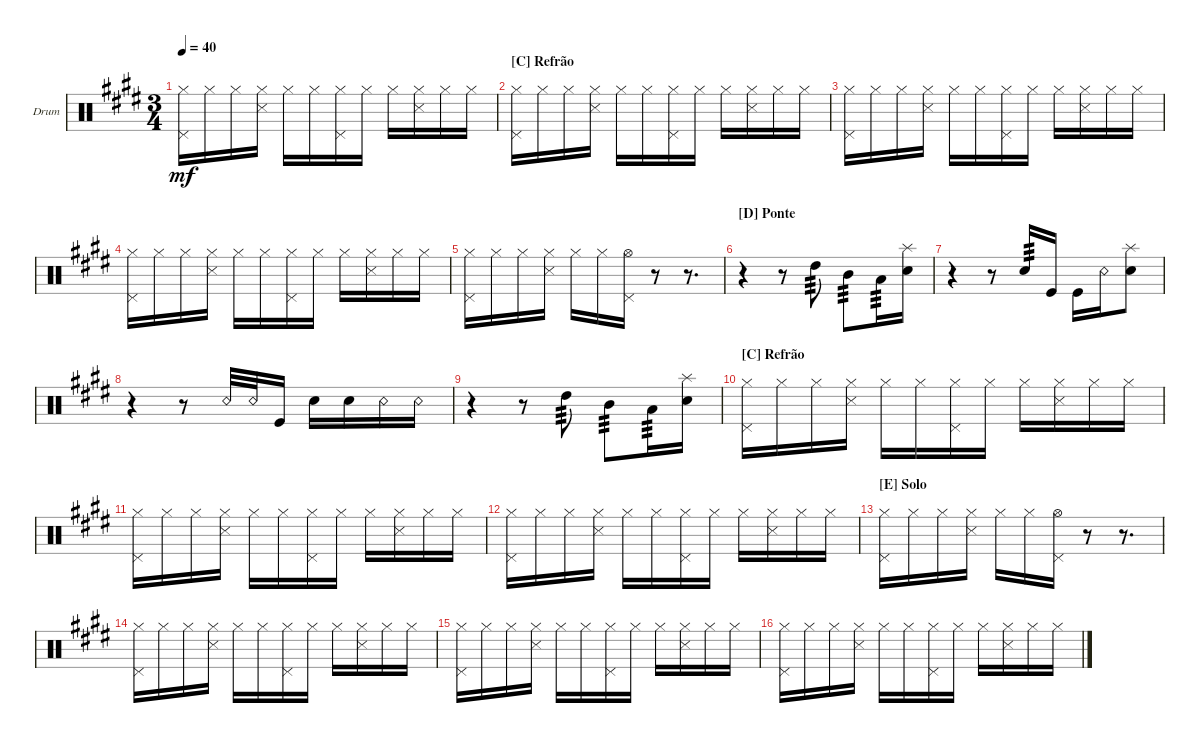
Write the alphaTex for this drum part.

\defaultSystemsLayout 4
\bracketExtendMode groupsimilarinstruments
\firstSystemTrackNameOrientation horizontal
\otherSystemsTrackNameOrientation horizontal
\track ("Drum" "Drum") {multiBarRest instrument percussion}
\staff {score}
\articulation defaults
\ts (3 4)
\tempo 40
\clef neutral
\ks c#minor
("Hi-Hat (closed)" "Pedal Hi-Hat (hit)").16{dy mf} "Hi-Hat (closed)".16 "Hi-Hat (closed)".16 ("Hi-Hat (closed)" "Snare (side stick) 3").16 "Hi-Hat (closed)".16 "Hi-Hat (closed)".16 ("Hi-Hat (closed)" "Pedal Hi-Hat (hit)").16 "Hi-Hat (closed)".16 "Hi-Hat (closed)".16 ("Hi-Hat (closed)" "Snare (side stick) 3").16 "Hi-Hat (closed)".16 "Hi-Hat (closed)".16 |
\section ("C" "Refrão")
("Hi-Hat (closed)" "Pedal Hi-Hat (hit)").16 "Hi-Hat (closed)".16 "Hi-Hat (closed)".16 ("Hi-Hat (closed)" "Snare (side stick) 3").16 "Hi-Hat (closed)".16 "Hi-Hat (closed)".16 ("Hi-Hat (closed)" "Pedal Hi-Hat (hit)").16 "Hi-Hat (closed)".16 "Hi-Hat (closed)".16 ("Hi-Hat (closed)" "Snare (side stick) 3").16 "Hi-Hat (closed)".16 "Hi-Hat (closed)".16 |
("Hi-Hat (closed)" "Pedal Hi-Hat (hit)").16 "Hi-Hat (closed)".16 "Hi-Hat (closed)".16 ("Hi-Hat (closed)" "Snare (side stick) 3").16 "Hi-Hat (closed)".16 "Hi-Hat (closed)".16 ("Hi-Hat (closed)" "Pedal Hi-Hat (hit)").16 "Hi-Hat (closed)".16 "Hi-Hat (closed)".16 ("Hi-Hat (closed)" "Snare (side stick) 3").16 "Hi-Hat (closed)".16 "Hi-Hat (closed)".16 |
("Hi-Hat (closed)" "Pedal Hi-Hat (hit)").16 "Hi-Hat (closed)".16 "Hi-Hat (closed)".16 ("Hi-Hat (closed)" "Snare (side stick) 3").16 "Hi-Hat (closed)".16 "Hi-Hat (closed)".16 ("Hi-Hat (closed)" "Pedal Hi-Hat (hit)").16 "Hi-Hat (closed)".16 "Hi-Hat (closed)".16 ("Hi-Hat (closed)" "Snare (side stick) 3").16 "Hi-Hat (closed)".16 "Hi-Hat (closed)".16 |
("Hi-Hat (closed)" "Pedal Hi-Hat (hit)").16 "Hi-Hat (closed)".16 "Hi-Hat (closed)".16 ("Hi-Hat (closed)" "Snare (side stick) 3").16 "Hi-Hat (closed)".16 "Hi-Hat (closed)".16 ("Pedal Hi-Hat (hit)" "Hi-Hat (open)").16 r.8 r.8{d} |
\section ("D" "Ponte")
r.4 r.8 "High Tom (hit)".8{tp 3} "Mid Tom (hit)".8{tp 3} "Low Tom (hit)".16{tp 3} ("Snare (hit) 2" "Splash (hit)").16 |
r.4 r.8 "Snare (hit) 2".16{tp 3} "Kick (hit)".16 "Kick (hit)".16 "Snare (rim shot)".16 ("Snare (hit) 2" "Splash (hit)").8 |
r.4 r.8 "Snare (rim shot)".32 "Snare (rim shot)".32 "Kick (hit)".16 "Snare (hit) 2".16 "Snare (hit) 2".16 "Snare (rim shot)".16 "Snare (rim shot)".16 |
r.4 r.8 "High Tom (hit)".8{tp 3} "Mid Tom (hit)".8{tp 3} "Low Tom (hit)".16{tp 3} ("Snare (hit) 2" "Splash (hit)").16 |
\section ("C" "Refrão")
("Hi-Hat (closed)" "Pedal Hi-Hat (hit)").16 "Hi-Hat (closed)".16 "Hi-Hat (closed)".16 ("Hi-Hat (closed)" "Snare (side stick) 3").16 "Hi-Hat (closed)".16 "Hi-Hat (closed)".16 ("Hi-Hat (closed)" "Pedal Hi-Hat (hit)").16 "Hi-Hat (closed)".16 "Hi-Hat (closed)".16 ("Hi-Hat (closed)" "Snare (side stick) 3").16 "Hi-Hat (closed)".16 "Hi-Hat (closed)".16 |
("Hi-Hat (closed)" "Pedal Hi-Hat (hit)").16 "Hi-Hat (closed)".16 "Hi-Hat (closed)".16 ("Hi-Hat (closed)" "Snare (side stick) 3").16 "Hi-Hat (closed)".16 "Hi-Hat (closed)".16 ("Hi-Hat (closed)" "Pedal Hi-Hat (hit)").16 "Hi-Hat (closed)".16 "Hi-Hat (closed)".16 ("Hi-Hat (closed)" "Snare (side stick) 3").16 "Hi-Hat (closed)".16 "Hi-Hat (closed)".16 |
("Hi-Hat (closed)" "Pedal Hi-Hat (hit)").16 "Hi-Hat (closed)".16 "Hi-Hat (closed)".16 ("Hi-Hat (closed)" "Snare (side stick) 3").16 "Hi-Hat (closed)".16 "Hi-Hat (closed)".16 ("Hi-Hat (closed)" "Pedal Hi-Hat (hit)").16 "Hi-Hat (closed)".16 "Hi-Hat (closed)".16 ("Hi-Hat (closed)" "Snare (side stick) 3").16 "Hi-Hat (closed)".16 "Hi-Hat (closed)".16 |
\section ("E" "Solo")
("Hi-Hat (closed)" "Pedal Hi-Hat (hit)").16 "Hi-Hat (closed)".16 "Hi-Hat (closed)".16 ("Hi-Hat (closed)" "Snare (side stick) 3").16 "Hi-Hat (closed)".16 "Hi-Hat (closed)".16 ("Pedal Hi-Hat (hit)" "Hi-Hat (open)").16 r.8 r.8{d} |
("Hi-Hat (closed)" "Pedal Hi-Hat (hit)").16 "Hi-Hat (closed)".16 "Hi-Hat (closed)".16 ("Hi-Hat (closed)" "Snare (side stick) 3").16 "Hi-Hat (closed)".16 "Hi-Hat (closed)".16 ("Hi-Hat (closed)" "Pedal Hi-Hat (hit)").16 "Hi-Hat (closed)".16 "Hi-Hat (closed)".16 ("Hi-Hat (closed)" "Snare (side stick) 3").16 "Hi-Hat (closed)".16 "Hi-Hat (closed)".16 |
("Hi-Hat (closed)" "Pedal Hi-Hat (hit)").16 "Hi-Hat (closed)".16 "Hi-Hat (closed)".16 ("Hi-Hat (closed)" "Snare (side stick) 3").16 "Hi-Hat (closed)".16 "Hi-Hat (closed)".16 ("Hi-Hat (closed)" "Pedal Hi-Hat (hit)").16 "Hi-Hat (closed)".16 "Hi-Hat (closed)".16 ("Hi-Hat (closed)" "Snare (side stick) 3").16 "Hi-Hat (closed)".16 "Hi-Hat (closed)".16 |
("Hi-Hat (closed)" "Pedal Hi-Hat (hit)").16 "Hi-Hat (closed)".16 "Hi-Hat (closed)".16 ("Hi-Hat (closed)" "Snare (side stick) 3").16 "Hi-Hat (closed)".16 "Hi-Hat (closed)".16 ("Hi-Hat (closed)" "Pedal Hi-Hat (hit)").16 "Hi-Hat (closed)".16 "Hi-Hat (closed)".16 ("Hi-Hat (closed)" "Snare (side stick) 3").16 "Hi-Hat (closed)".16 "Hi-Hat (closed)".16
